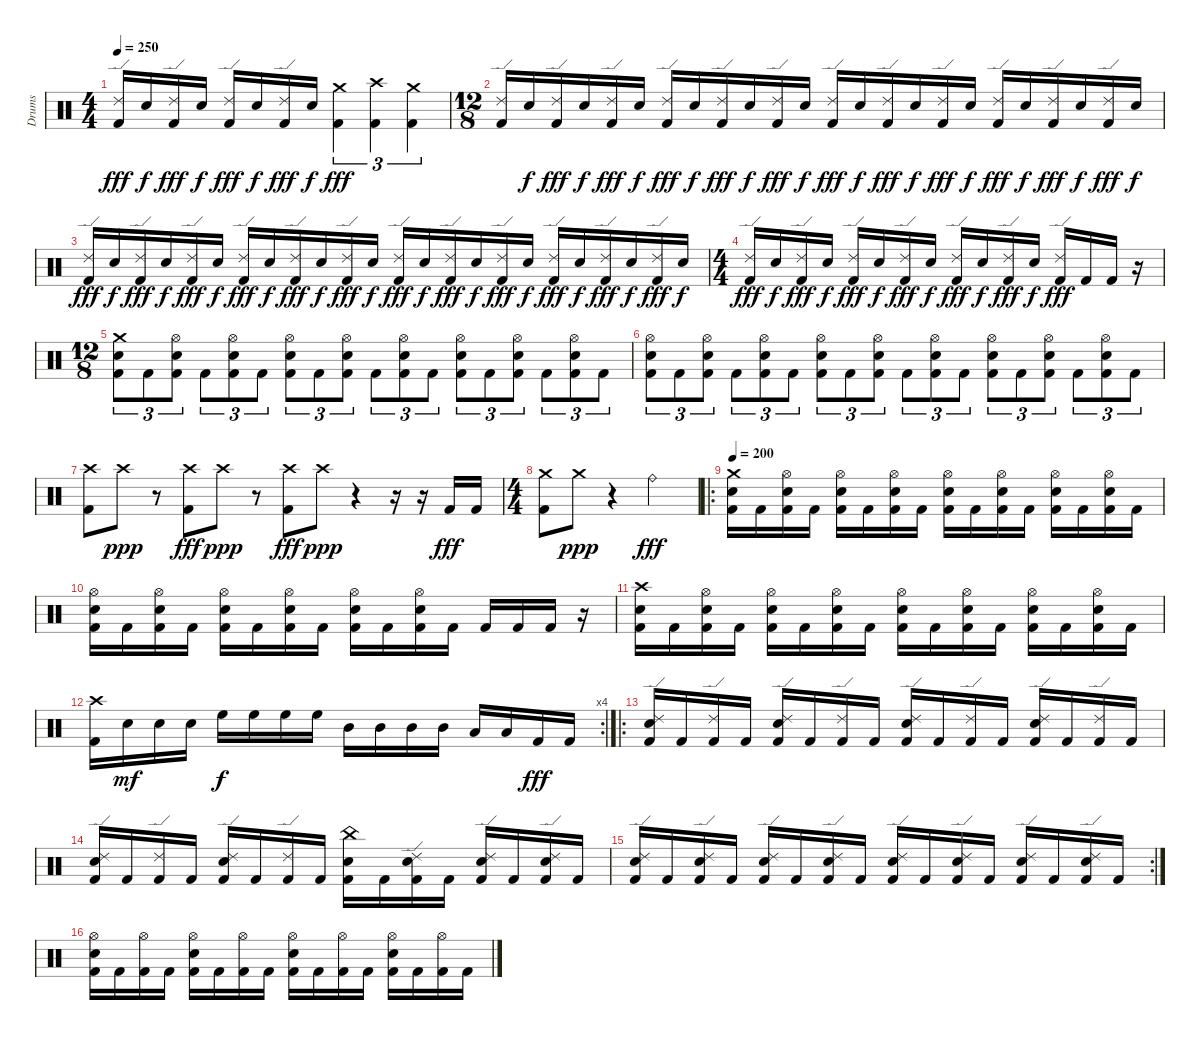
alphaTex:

\track ("Drums" "Drums") {instrument percussion}
\staff {score}
\articulation defaults
\ts (4 4)
\tempo 250
\clef neutral
\ks c
("Ride (edge) 2" "Kick (hit) 2").16{dy fff} "Electric Snare (hit)".16{dy f} ("Ride (edge) 2" "Kick (hit) 2").16{dy fff} "Electric Snare (hit)".16{dy f} ("Ride (edge) 2" "Kick (hit) 2").16{dy fff} "Electric Snare (hit)".16{dy f} ("Ride (edge) 2" "Kick (hit) 2").16{dy fff} "Electric Snare (hit)".16{dy f} ("Crash medium (hit)" "Kick (hit) 2").4{tu (3 2) dy fff} ("Crash high (hit)" "Kick (hit) 2").4{tu (3 2)} ("Crash medium (hit)" "Kick (hit) 2").4{tu (3 2)} |
\ts (12 8)
("Ride (edge) 2" "Kick (hit) 2").16 "Electric Snare (hit)".16{dy f} ("Ride (edge) 2" "Kick (hit) 2").16{dy fff} "Electric Snare (hit)".16{dy f} ("Ride (edge) 2" "Kick (hit) 2").16{dy fff} "Electric Snare (hit)".16{dy f} ("Ride (edge) 2" "Kick (hit) 2").16{dy fff} "Electric Snare (hit)".16{dy f} ("Ride (edge) 2" "Kick (hit) 2").16{dy fff} "Electric Snare (hit)".16{dy f} ("Ride (edge) 2" "Kick (hit) 2").16{dy fff} "Electric Snare (hit)".16{dy f} ("Ride (edge) 2" "Kick (hit) 2").16{dy fff} "Electric Snare (hit)".16{dy f} ("Ride (edge) 2" "Kick (hit) 2").16{dy fff} "Electric Snare (hit)".16{dy f} ("Ride (edge) 2" "Kick (hit) 2").16{dy fff} "Electric Snare (hit)".16{dy f} ("Ride (edge) 2" "Kick (hit) 2").16{dy fff} "Electric Snare (hit)".16{dy f} ("Ride (edge) 2" "Kick (hit) 2").16{dy fff} "Electric Snare (hit)".16{dy f} ("Ride (edge) 2" "Kick (hit) 2").16{dy fff} "Electric Snare (hit)".16{dy f} |
("Ride (edge) 2" "Kick (hit) 2").16{dy fff} "Electric Snare (hit)".16{dy f} ("Ride (edge) 2" "Kick (hit) 2").16{dy fff} "Electric Snare (hit)".16{dy f} ("Ride (edge) 2" "Kick (hit) 2").16{dy fff} "Electric Snare (hit)".16{dy f} ("Ride (edge) 2" "Kick (hit) 2").16{dy fff} "Electric Snare (hit)".16{dy f} ("Ride (edge) 2" "Kick (hit) 2").16{dy fff} "Electric Snare (hit)".16{dy f} ("Ride (edge) 2" "Kick (hit) 2").16{dy fff} "Electric Snare (hit)".16{dy f} ("Ride (edge) 2" "Kick (hit) 2").16{dy fff} "Electric Snare (hit)".16{dy f} ("Ride (edge) 2" "Kick (hit) 2").16{dy fff} "Electric Snare (hit)".16{dy f} ("Ride (edge) 2" "Kick (hit) 2").16{dy fff} "Electric Snare (hit)".16{dy f} ("Ride (edge) 2" "Kick (hit) 2").16{dy fff} "Electric Snare (hit)".16{dy f} ("Ride (edge) 2" "Kick (hit) 2").16{dy fff} "Electric Snare (hit)".16{dy f} ("Ride (edge) 2" "Kick (hit) 2").16{dy fff} "Electric Snare (hit)".16{dy f} |
\ts (4 4)
("Ride (edge) 2" "Kick (hit) 2").16{dy fff} "Electric Snare (hit)".16{dy f} ("Ride (edge) 2" "Kick (hit) 2").16{dy fff} "Electric Snare (hit)".16{dy f} ("Ride (edge) 2" "Kick (hit) 2").16{dy fff} "Electric Snare (hit)".16{dy f} ("Ride (edge) 2" "Kick (hit) 2").16{dy fff} "Electric Snare (hit)".16{dy f} ("Ride (edge) 2" "Kick (hit) 2").16{dy fff} "Electric Snare (hit)".16{dy f} ("Ride (edge) 2" "Kick (hit) 2").16{dy fff} "Electric Snare (hit)".16{dy f} ("Ride (edge) 2" "Kick (hit) 2").16{dy fff} "Kick (hit) 2".16 "Kick (hit) 2".16 r.16 |
\ts (12 8)
("Crash medium (hit)" "Electric Snare (hit)" "Kick (hit) 2").8{tu (3 2)} "Kick (hit) 2".8{tu (3 2)} ("Hi-Hat (open)" "Electric Snare (hit)" "Kick (hit) 2").8{tu (3 2)} "Kick (hit) 2".8{tu (3 2)} ("Hi-Hat (open)" "Electric Snare (hit)" "Kick (hit) 2").8{tu (3 2)} "Kick (hit) 2".8{tu (3 2)} ("Hi-Hat (open)" "Electric Snare (hit)" "Kick (hit) 2").8{tu (3 2)} "Kick (hit) 2".8{tu (3 2)} ("Hi-Hat (open)" "Electric Snare (hit)" "Kick (hit) 2").8{tu (3 2)} "Kick (hit) 2".8{tu (3 2)} ("Hi-Hat (open)" "Electric Snare (hit)" "Kick (hit) 2").8{tu (3 2)} "Kick (hit) 2".8{tu (3 2)} ("Hi-Hat (open)" "Electric Snare (hit)" "Kick (hit) 2").8{tu (3 2)} "Kick (hit) 2".8{tu (3 2)} ("Hi-Hat (open)" "Electric Snare (hit)" "Kick (hit) 2").8{tu (3 2)} "Kick (hit) 2".8{tu (3 2)} ("Hi-Hat (open)" "Electric Snare (hit)" "Kick (hit) 2").8{tu (3 2)} "Kick (hit) 2".8{tu (3 2)} |
("Hi-Hat (open)" "Electric Snare (hit)" "Kick (hit) 2").8{tu (3 2)} "Kick (hit) 2".8{tu (3 2)} ("Hi-Hat (open)" "Electric Snare (hit)" "Kick (hit) 2").8{tu (3 2)} "Kick (hit) 2".8{tu (3 2)} ("Hi-Hat (open)" "Electric Snare (hit)" "Kick (hit) 2").8{tu (3 2)} "Kick (hit) 2".8{tu (3 2)} ("Hi-Hat (open)" "Electric Snare (hit)" "Kick (hit) 2").8{tu (3 2)} "Kick (hit) 2".8{tu (3 2)} ("Hi-Hat (open)" "Electric Snare (hit)" "Kick (hit) 2").8{tu (3 2)} "Kick (hit) 2".8{tu (3 2)} ("Hi-Hat (open)" "Electric Snare (hit)" "Kick (hit) 2").8{tu (3 2)} "Kick (hit) 2".8{tu (3 2)} ("Hi-Hat (open)" "Electric Snare (hit)" "Kick (hit) 2").8{tu (3 2)} "Kick (hit) 2".8{tu (3 2)} ("Hi-Hat (open)" "Electric Snare (hit)" "Kick (hit) 2").8{tu (3 2)} "Kick (hit) 2".8{tu (3 2)} ("Hi-Hat (open)" "Electric Snare (hit)" "Kick (hit) 2").8{tu (3 2)} "Kick (hit) 2".8{tu (3 2)} |
("Crash high (hit)" "Kick (hit) 2").8 "Crash high (hit)".8{dy ppp} r.8 ("Crash high (hit)" "Kick (hit) 2").8{dy fff} "Crash high (hit)".8{dy ppp} r.8 ("Crash high (hit)" "Kick (hit) 2").8{dy fff} "Crash high (hit)".8{dy ppp} r.4 r.16 r.16 "Kick (hit) 2".16{dy fff} "Kick (hit) 2".16 |
\ts (4 4)
("Crash medium (hit)" "Kick (hit) 2").8 "Crash medium (hit)".8{dy ppp} r.4 "Ride (bell)".2{dy fff} |
\ro
\tempo 200
("Crash medium (hit)" "Electric Snare (hit)" "Kick (hit) 2").16 "Kick (hit) 2".16 ("Hi-Hat (open)" "Electric Snare (hit)" "Kick (hit) 2").16 "Kick (hit) 2".16 ("Hi-Hat (open)" "Electric Snare (hit)" "Kick (hit) 2").16 "Kick (hit) 2".16 ("Hi-Hat (open)" "Electric Snare (hit)" "Kick (hit) 2").16 "Kick (hit) 2".16 ("Hi-Hat (open)" "Electric Snare (hit)" "Kick (hit) 2").16 "Kick (hit) 2".16 ("Hi-Hat (open)" "Electric Snare (hit)" "Kick (hit) 2").16 "Kick (hit) 2".16 ("Hi-Hat (open)" "Electric Snare (hit)" "Kick (hit) 2").16 "Kick (hit) 2".16 ("Hi-Hat (open)" "Electric Snare (hit)" "Kick (hit) 2").16 "Kick (hit) 2".16 |
("Hi-Hat (open)" "Electric Snare (hit)" "Kick (hit) 2").16 "Kick (hit) 2".16 ("Hi-Hat (open)" "Electric Snare (hit)" "Kick (hit) 2").16 "Kick (hit) 2".16 ("Hi-Hat (open)" "Electric Snare (hit)" "Kick (hit) 2").16 "Kick (hit) 2".16 ("Hi-Hat (open)" "Electric Snare (hit)" "Kick (hit) 2").16 "Kick (hit) 2".16 ("Hi-Hat (open)" "Electric Snare (hit)" "Kick (hit) 2").16 "Kick (hit) 2".16 ("Hi-Hat (open)" "Electric Snare (hit)" "Kick (hit) 2").16 "Kick (hit) 2".16 "Kick (hit) 2".16 "Kick (hit) 2".16 "Kick (hit) 2".16 r.16 |
("Crash high (hit)" "Electric Snare (hit)" "Kick (hit) 2").16 "Kick (hit) 2".16 ("Hi-Hat (open)" "Electric Snare (hit)" "Kick (hit) 2").16 "Kick (hit) 2".16 ("Hi-Hat (open)" "Electric Snare (hit)" "Kick (hit) 2").16 "Kick (hit) 2".16 ("Hi-Hat (open)" "Electric Snare (hit)" "Kick (hit) 2").16 "Kick (hit) 2".16 ("Hi-Hat (open)" "Electric Snare (hit)" "Kick (hit) 2").16 "Kick (hit) 2".16 ("Hi-Hat (open)" "Electric Snare (hit)" "Kick (hit) 2").16 "Kick (hit) 2".16 ("Hi-Hat (open)" "Electric Snare (hit)" "Kick (hit) 2").16 "Kick (hit) 2".16 ("Hi-Hat (open)" "Electric Snare (hit)" "Kick (hit) 2").16 "Kick (hit) 2".16 |
\rc 4
("Crash high (hit)" "Kick (hit) 2").16 "Electric Snare (hit)".16{dy mf} "Electric Snare (hit)".16 "Electric Snare (hit)".16 "High Floor Tom (hit)".16{dy f} "High Floor Tom (hit)".16 "High Floor Tom (hit)".16 "High Floor Tom (hit)".16 "Mid Tom (hit)".16 "Mid Tom (hit)".16 "Mid Tom (hit)".16 "Mid Tom (hit)".16 "Low Tom (hit)".16 "Low Tom (hit)".16 "Kick (hit) 2".16{dy fff} "Kick (hit) 2".16 |
\ro
("Ride (edge) 2" "Electric Snare (hit)" "Kick (hit) 2").16 "Kick (hit) 2".16 ("Ride (edge) 2" "Kick (hit) 2").16 "Kick (hit) 2".16 ("Ride (edge) 2" "Electric Snare (hit)" "Kick (hit) 2").16 "Kick (hit) 2".16 ("Ride (edge) 2" "Kick (hit) 2").16 "Kick (hit) 2".16 ("Ride (edge) 2" "Electric Snare (hit)" "Kick (hit) 2").16 "Kick (hit) 2".16 ("Ride (edge) 2" "Kick (hit) 2").16 "Kick (hit) 2".16 ("Ride (edge) 2" "Electric Snare (hit)" "Kick (hit) 2").16 "Kick (hit) 2".16 ("Ride (edge) 2" "Kick (hit) 2").16 "Kick (hit) 2".16 |
("Ride (edge) 2" "Electric Snare (hit)" "Kick (hit) 2").16 "Kick (hit) 2".16 ("Ride (edge) 2" "Kick (hit) 2").16 "Kick (hit) 2".16 ("Ride (edge) 2" "Electric Snare (hit)" "Kick (hit) 2").16 "Kick (hit) 2".16 ("Ride (edge) 2" "Kick (hit) 2").16 "Kick (hit) 2".16 ("China (hit)" "Electric Snare (hit)" "Kick (hit) 2").16 "Kick (hit) 2".16 ("Ride (edge) 2" "Electric Snare (hit)" "Kick (hit) 2").16 "Kick (hit) 2".16 ("Ride (edge) 2" "Electric Snare (hit)" "Kick (hit) 2").16 "Kick (hit) 2".16 ("Ride (edge) 2" "Electric Snare (hit)" "Kick (hit) 2").16 "Kick (hit) 2".16 |
\rc 2
("Ride (edge) 2" "Electric Snare (hit)" "Kick (hit) 2").16 "Kick (hit) 2".16 ("Ride (edge) 2" "Electric Snare (hit)" "Kick (hit) 2").16 "Kick (hit) 2".16 ("Ride (edge) 2" "Electric Snare (hit)" "Kick (hit) 2").16 "Kick (hit) 2".16 ("Ride (edge) 2" "Electric Snare (hit)" "Kick (hit) 2").16 "Kick (hit) 2".16 ("Ride (edge) 2" "Electric Snare (hit)" "Kick (hit) 2").16 "Kick (hit) 2".16 ("Ride (edge) 2" "Electric Snare (hit)" "Kick (hit) 2").16 "Kick (hit) 2".16 ("Ride (edge) 2" "Electric Snare (hit)" "Kick (hit) 2").16 "Kick (hit) 2".16 ("Ride (edge) 2" "Electric Snare (hit)" "Kick (hit) 2").16 "Kick (hit) 2".16 |
("Hi-Hat (open)" "Electric Snare (hit)" "Kick (hit) 2").16 "Kick (hit) 2".16 ("Hi-Hat (open)" "Kick (hit) 2").16 "Kick (hit) 2".16 ("Hi-Hat (open)" "Electric Snare (hit)" "Kick (hit) 2").16 "Kick (hit) 2".16 ("Hi-Hat (open)" "Kick (hit) 2").16 "Kick (hit) 2".16 ("Hi-Hat (open)" "Electric Snare (hit)" "Kick (hit) 2").16 "Kick (hit) 2".16 ("Hi-Hat (open)" "Kick (hit) 2").16 "Kick (hit) 2".16 ("Hi-Hat (open)" "Electric Snare (hit)" "Kick (hit) 2").16 "Kick (hit) 2".16 ("Hi-Hat (open)" "Kick (hit) 2").16 "Kick (hit) 2".16
